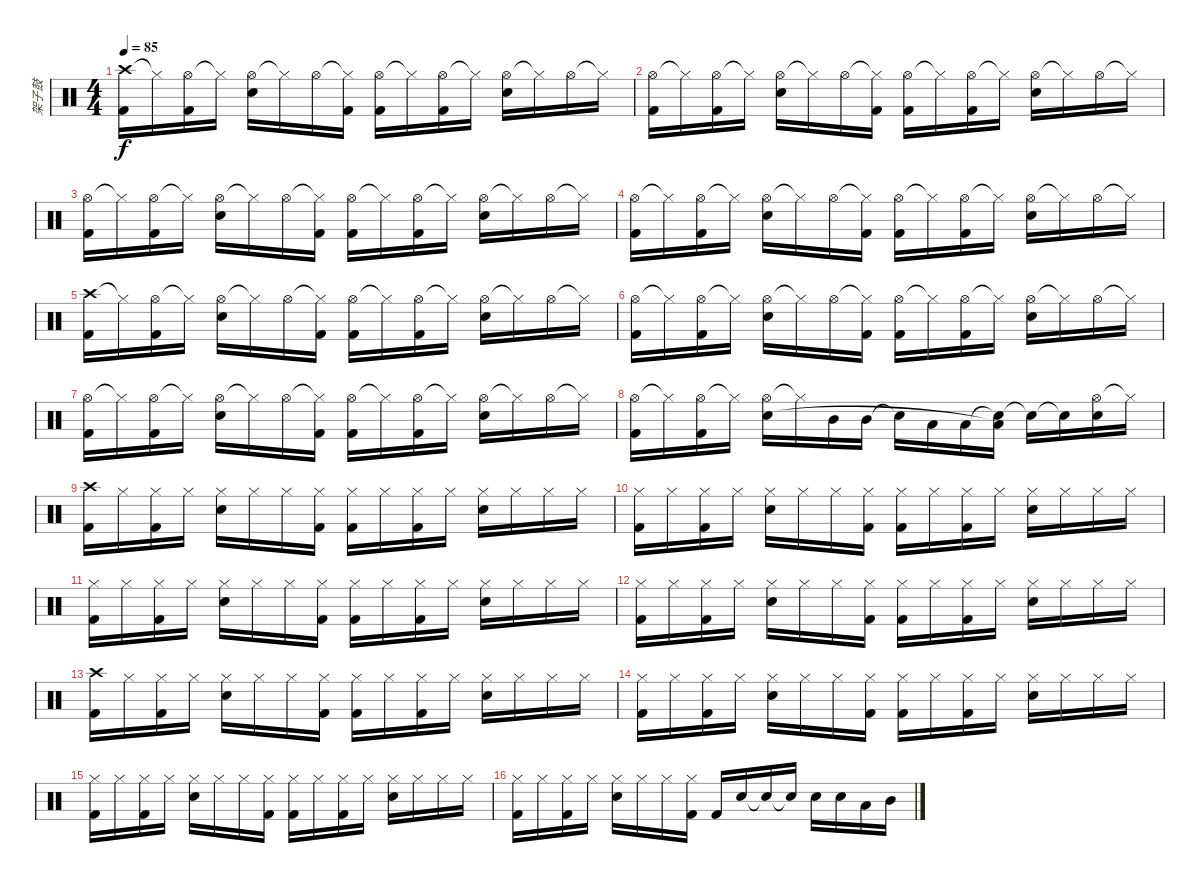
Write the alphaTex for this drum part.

\track ("架子鼓" "架子鼓") {instrument percussion}
\staff {score}
\articulation defaults
\ts (4 4)
\tempo 85
\clef neutral
\ks c
("Crash high (hit)" "Kick (hit) 2").16{dy f} "Hi-Hat (closed)"{t}.16 ("Hi-Hat (open)" "Kick (hit) 2").16 "Hi-Hat (closed)"{t}.16 ("Hi-Hat (open)" "Snare (hit) 2").16 "Hi-Hat (closed)"{t}.16 "Hi-Hat (open)".16 ("Hi-Hat (closed)"{t} "Kick (hit) 2").16 ("Hi-Hat (open)" "Kick (hit) 2").16 "Hi-Hat (closed)"{t}.16 ("Hi-Hat (open)" "Kick (hit) 2").16 "Hi-Hat (closed)"{t}.16 ("Hi-Hat (open)" "Snare (hit) 2").16 "Hi-Hat (closed)"{t}.16 "Hi-Hat (open)".16 "Hi-Hat (closed)"{t}.16 |
("Hi-Hat (open)" "Kick (hit) 2").16 "Hi-Hat (closed)"{t}.16 ("Hi-Hat (open)" "Kick (hit) 2").16 "Hi-Hat (closed)"{t}.16 ("Hi-Hat (open)" "Snare (hit) 2").16 "Hi-Hat (closed)"{t}.16 "Hi-Hat (open)".16 ("Hi-Hat (closed)"{t} "Kick (hit) 2").16 ("Hi-Hat (open)" "Kick (hit) 2").16 "Hi-Hat (closed)"{t}.16 ("Hi-Hat (open)" "Kick (hit) 2").16 "Hi-Hat (closed)"{t}.16 ("Hi-Hat (open)" "Snare (hit) 2").16 "Hi-Hat (closed)"{t}.16 "Hi-Hat (open)".16 "Hi-Hat (closed)"{t}.16 |
("Hi-Hat (open)" "Kick (hit) 2").16 "Hi-Hat (closed)"{t}.16 ("Hi-Hat (open)" "Kick (hit) 2").16 "Hi-Hat (closed)"{t}.16 ("Hi-Hat (open)" "Snare (hit) 2").16 "Hi-Hat (closed)"{t}.16 "Hi-Hat (open)".16 ("Hi-Hat (closed)"{t} "Kick (hit) 2").16 ("Hi-Hat (open)" "Kick (hit) 2").16 "Hi-Hat (closed)"{t}.16 ("Hi-Hat (open)" "Kick (hit) 2").16 "Hi-Hat (closed)"{t}.16 ("Hi-Hat (open)" "Snare (hit) 2").16 "Hi-Hat (closed)"{t}.16 "Hi-Hat (open)".16 "Hi-Hat (closed)"{t}.16 |
("Hi-Hat (open)" "Kick (hit) 2").16 "Hi-Hat (closed)"{t}.16 ("Hi-Hat (open)" "Kick (hit) 2").16 "Hi-Hat (closed)"{t}.16 ("Hi-Hat (open)" "Snare (hit) 2").16 "Hi-Hat (closed)"{t}.16 "Hi-Hat (open)".16 ("Hi-Hat (closed)"{t} "Kick (hit) 2").16 ("Hi-Hat (open)" "Kick (hit) 2").16 "Hi-Hat (closed)"{t}.16 ("Hi-Hat (open)" "Kick (hit) 2").16 "Hi-Hat (closed)"{t}.16 ("Hi-Hat (open)" "Snare (hit) 2").16 "Hi-Hat (closed)"{t}.16 "Hi-Hat (open)".16 "Hi-Hat (closed)"{t}.16 |
("Crash high (hit)" "Kick (hit) 2").16 "Hi-Hat (closed)"{t}.16 ("Hi-Hat (open)" "Kick (hit) 2").16 "Hi-Hat (closed)"{t}.16 ("Hi-Hat (open)" "Snare (hit) 2").16 "Hi-Hat (closed)"{t}.16 "Hi-Hat (open)".16 ("Hi-Hat (closed)"{t} "Kick (hit) 2").16 ("Hi-Hat (open)" "Kick (hit) 2").16 "Hi-Hat (closed)"{t}.16 ("Hi-Hat (open)" "Kick (hit) 2").16 "Hi-Hat (closed)"{t}.16 ("Hi-Hat (open)" "Snare (hit) 2").16 "Hi-Hat (closed)"{t}.16 "Hi-Hat (open)".16 "Hi-Hat (closed)"{t}.16 |
("Hi-Hat (open)" "Kick (hit) 2").16 "Hi-Hat (closed)"{t}.16 ("Hi-Hat (open)" "Kick (hit) 2").16 "Hi-Hat (closed)"{t}.16 ("Hi-Hat (open)" "Snare (hit) 2").16 "Hi-Hat (closed)"{t}.16 "Hi-Hat (open)".16 ("Hi-Hat (closed)"{t} "Kick (hit) 2").16 ("Hi-Hat (open)" "Kick (hit) 2").16 "Hi-Hat (closed)"{t}.16 ("Hi-Hat (open)" "Kick (hit) 2").16 "Hi-Hat (closed)"{t}.16 ("Hi-Hat (open)" "Snare (hit) 2").16 "Hi-Hat (closed)"{t}.16 "Hi-Hat (open)".16 "Hi-Hat (closed)"{t}.16 |
("Hi-Hat (open)" "Kick (hit) 2").16 "Hi-Hat (closed)"{t}.16 ("Hi-Hat (open)" "Kick (hit) 2").16 "Hi-Hat (closed)"{t}.16 ("Hi-Hat (open)" "Snare (hit) 2").16 "Hi-Hat (closed)"{t}.16 "Hi-Hat (open)".16 ("Hi-Hat (closed)"{t} "Kick (hit) 2").16 ("Hi-Hat (open)" "Kick (hit) 2").16 "Hi-Hat (closed)"{t}.16 ("Hi-Hat (open)" "Kick (hit) 2").16 "Hi-Hat (closed)"{t}.16 ("Hi-Hat (open)" "Snare (hit) 2").16 "Hi-Hat (closed)"{t}.16 "Hi-Hat (open)".16 "Hi-Hat (closed)"{t}.16 |
("Hi-Hat (open)" "Kick (hit) 2").16 "Hi-Hat (closed)"{t}.16 ("Hi-Hat (open)" "Kick (hit) 2").16 "Hi-Hat (closed)"{t}.16 ("Hi-Hat (open)" "Snare (hit) 2").16 "Hi-Hat (closed)"{t}.16 "Mid Tom (hit)".16 "Mid Tom (hit)".16 "Snare (hit)"{t}.16 "Low Tom (hit)".16 "Low Tom (hit)".16 ("Snare (hit)"{t} "Low Tom (hit)"{t}).16 "Snare (hit) 2"{t}.16 "Snare (hit)"{t}.16 ("Hi-Hat (open)" "Snare (hit) 2").16 "Hi-Hat (closed)"{t}.16 |
("Crash high (hit)" "Kick (hit) 2").16 "Hi-Hat (closed)".16 ("Hi-Hat (closed)" "Kick (hit) 2").16 "Hi-Hat (closed)".16 ("Hi-Hat (closed)" "Snare (hit) 2").16 "Hi-Hat (closed)".16 "Hi-Hat (closed)".16 ("Hi-Hat (closed)" "Kick (hit) 2").16 ("Hi-Hat (closed)" "Kick (hit) 2").16 "Hi-Hat (closed)".16 ("Hi-Hat (closed)" "Kick (hit) 2").16 "Hi-Hat (closed)".16 ("Hi-Hat (closed)" "Snare (hit) 2").16 "Hi-Hat (closed)".16 "Hi-Hat (closed)".16 "Hi-Hat (closed)".16 |
("Hi-Hat (closed)" "Kick (hit) 2").16 "Hi-Hat (closed)".16 ("Hi-Hat (closed)" "Kick (hit) 2").16 "Hi-Hat (closed)".16 ("Hi-Hat (closed)" "Snare (hit) 2").16 "Hi-Hat (closed)".16 "Hi-Hat (closed)".16 ("Hi-Hat (closed)" "Kick (hit) 2").16 ("Hi-Hat (closed)" "Kick (hit) 2").16 "Hi-Hat (closed)".16 ("Hi-Hat (closed)" "Kick (hit) 2").16 "Hi-Hat (closed)".16 ("Hi-Hat (closed)" "Snare (hit) 2").16 "Hi-Hat (closed)".16 "Hi-Hat (closed)".16 "Hi-Hat (closed)".16 |
("Hi-Hat (closed)" "Kick (hit) 2").16 "Hi-Hat (closed)".16 ("Hi-Hat (closed)" "Kick (hit) 2").16 "Hi-Hat (closed)".16 ("Hi-Hat (closed)" "Snare (hit) 2").16 "Hi-Hat (closed)".16 "Hi-Hat (closed)".16 ("Hi-Hat (closed)" "Kick (hit) 2").16 ("Hi-Hat (closed)" "Kick (hit) 2").16 "Hi-Hat (closed)".16 ("Hi-Hat (closed)" "Kick (hit) 2").16 "Hi-Hat (closed)".16 ("Hi-Hat (closed)" "Snare (hit) 2").16 "Hi-Hat (closed)".16 "Hi-Hat (closed)".16 "Hi-Hat (closed)".16 |
("Hi-Hat (closed)" "Kick (hit) 2").16 "Hi-Hat (closed)".16 ("Hi-Hat (closed)" "Kick (hit) 2").16 "Hi-Hat (closed)".16 ("Hi-Hat (closed)" "Snare (hit) 2").16 "Hi-Hat (closed)".16 "Hi-Hat (closed)".16 ("Hi-Hat (closed)" "Kick (hit) 2").16 ("Hi-Hat (closed)" "Kick (hit) 2").16 "Hi-Hat (closed)".16 ("Hi-Hat (closed)" "Kick (hit) 2").16 "Hi-Hat (closed)".16 ("Hi-Hat (closed)" "Snare (hit) 2").16 "Hi-Hat (closed)".16 "Hi-Hat (closed)".16 "Hi-Hat (closed)".16 |
("Crash high (hit)" "Kick (hit) 2").16 "Hi-Hat (closed)".16 ("Hi-Hat (closed)" "Kick (hit) 2").16 "Hi-Hat (closed)".16 ("Hi-Hat (closed)" "Snare (hit) 2").16 "Hi-Hat (closed)".16 "Hi-Hat (closed)".16 ("Hi-Hat (closed)" "Kick (hit) 2").16 ("Hi-Hat (closed)" "Kick (hit) 2").16 "Hi-Hat (closed)".16 ("Hi-Hat (closed)" "Kick (hit) 2").16 "Hi-Hat (closed)".16 ("Hi-Hat (closed)" "Snare (hit) 2").16 "Hi-Hat (closed)".16 "Hi-Hat (closed)".16 "Hi-Hat (closed)".16 |
("Hi-Hat (closed)" "Kick (hit) 2").16 "Hi-Hat (closed)".16 ("Hi-Hat (closed)" "Kick (hit) 2").16 "Hi-Hat (closed)".16 ("Hi-Hat (closed)" "Snare (hit) 2").16 "Hi-Hat (closed)".16 "Hi-Hat (closed)".16 ("Hi-Hat (closed)" "Kick (hit) 2").16 ("Hi-Hat (closed)" "Kick (hit) 2").16 "Hi-Hat (closed)".16 ("Hi-Hat (closed)" "Kick (hit) 2").16 "Hi-Hat (closed)".16 ("Hi-Hat (closed)" "Snare (hit) 2").16 "Hi-Hat (closed)".16 "Hi-Hat (closed)".16 "Hi-Hat (closed)".16 |
("Hi-Hat (closed)" "Kick (hit) 2").16 "Hi-Hat (closed)".16 ("Hi-Hat (closed)" "Kick (hit) 2").16 "Hi-Hat (closed)".16 ("Hi-Hat (closed)" "Snare (hit) 2").16 "Hi-Hat (closed)".16 "Hi-Hat (closed)".16 ("Hi-Hat (closed)" "Kick (hit) 2").16 ("Hi-Hat (closed)" "Kick (hit) 2").16 "Hi-Hat (closed)".16 ("Hi-Hat (closed)" "Kick (hit) 2").16 "Hi-Hat (closed)".16 ("Hi-Hat (closed)" "Snare (hit) 2").16 "Hi-Hat (closed)".16 "Hi-Hat (closed)".16 "Hi-Hat (closed)".16 |
("Hi-Hat (closed)" "Kick (hit) 2").16 "Hi-Hat (closed)".16 ("Hi-Hat (closed)" "Kick (hit) 2").16 "Hi-Hat (closed)".16 ("Hi-Hat (closed)" "Snare (hit) 2").16 "Hi-Hat (closed)".16 "Hi-Hat (closed)".16 ("Hi-Hat (closed)" "Kick (hit) 2").16 "Kick (hit) 2".16 "Snare (hit) 2".16 "Snare (hit)"{t}.16 "Snare (hit)"{t}.16 "Snare (hit) 2".16 "Snare (hit) 2".16 "Low Tom (hit)".16 "Mid Tom (hit)".16
